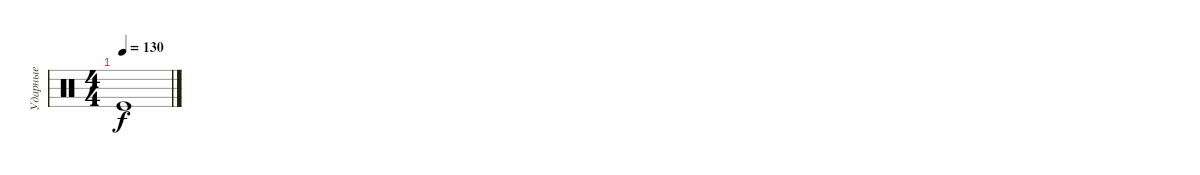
\track ("Ударные" "Ударные") {instrument percussion}
\staff {score}
\articulation defaults
\ts (4 4)
\tempo 130
\clef neutral
\ks c "Kick (hit)".1{dy f}
